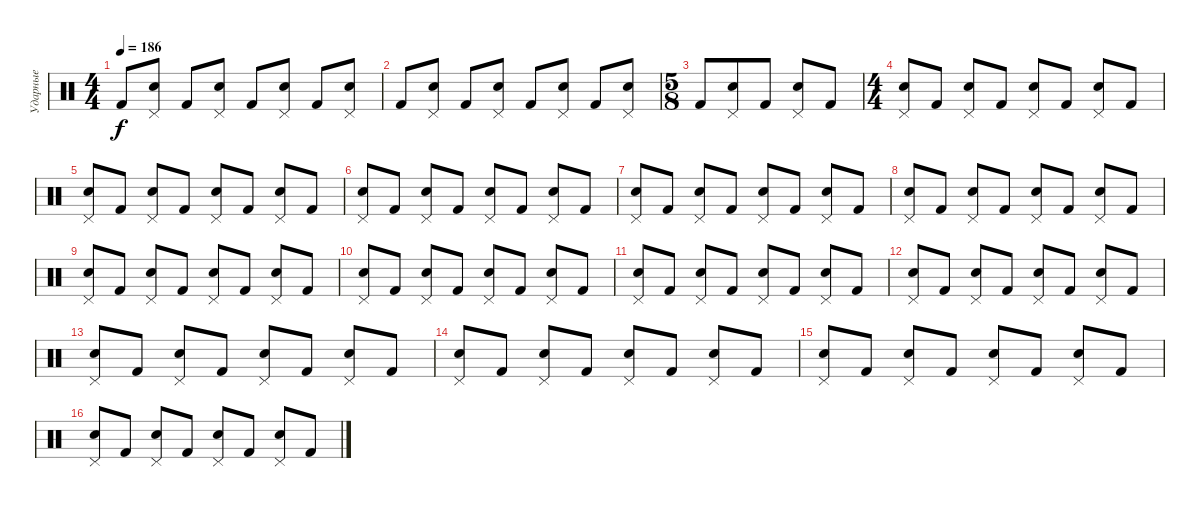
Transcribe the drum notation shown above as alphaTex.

\track ("Ударные" "Ударные") {instrument percussion}
\staff {score}
\articulation defaults
\ts (4 4)
\tempo 186
\clef neutral
\ks c "Kick (hit) 2".8{dy f}
("Pedal Hi-Hat (hit)" "Snare (hit) 2").8 "Kick (hit) 2".8 ("Pedal Hi-Hat (hit)" "Snare (hit) 2").8 "Kick (hit) 2".8 ("Pedal Hi-Hat (hit)" "Snare (hit) 2").8 "Kick (hit) 2".8 ("Pedal Hi-Hat (hit)" "Snare (hit) 2").8 |
"Kick (hit) 2".8 ("Pedal Hi-Hat (hit)" "Snare (hit) 2").8 "Kick (hit) 2".8 ("Pedal Hi-Hat (hit)" "Snare (hit) 2").8 "Kick (hit) 2".8 ("Pedal Hi-Hat (hit)" "Snare (hit) 2").8 "Kick (hit) 2".8 ("Pedal Hi-Hat (hit)" "Snare (hit) 2").8 |
\ts (5 8)
"Kick (hit) 2".8 ("Pedal Hi-Hat (hit)" "Snare (hit) 2").8 "Kick (hit) 2".8 ("Pedal Hi-Hat (hit)" "Snare (hit) 2").8 "Kick (hit) 2".8 |
\ts (4 4)
("Pedal Hi-Hat (hit)" "Snare (hit) 2").8 "Kick (hit) 2".8 ("Pedal Hi-Hat (hit)" "Snare (hit) 2").8 "Kick (hit) 2".8 ("Pedal Hi-Hat (hit)" "Snare (hit) 2").8 "Kick (hit) 2".8 ("Pedal Hi-Hat (hit)" "Snare (hit) 2").8 "Kick (hit) 2".8 |
("Pedal Hi-Hat (hit)" "Snare (hit) 2").8 "Kick (hit) 2".8 ("Pedal Hi-Hat (hit)" "Snare (hit) 2").8 "Kick (hit) 2".8 ("Pedal Hi-Hat (hit)" "Snare (hit) 2").8 "Kick (hit) 2".8 ("Pedal Hi-Hat (hit)" "Snare (hit) 2").8 "Kick (hit) 2".8 |
("Pedal Hi-Hat (hit)" "Snare (hit) 2").8 "Kick (hit) 2".8 ("Pedal Hi-Hat (hit)" "Snare (hit) 2").8 "Kick (hit) 2".8 ("Pedal Hi-Hat (hit)" "Snare (hit) 2").8 "Kick (hit) 2".8 ("Pedal Hi-Hat (hit)" "Snare (hit) 2").8 "Kick (hit) 2".8 |
("Pedal Hi-Hat (hit)" "Snare (hit) 2").8 "Kick (hit) 2".8 ("Pedal Hi-Hat (hit)" "Snare (hit) 2").8 "Kick (hit) 2".8 ("Pedal Hi-Hat (hit)" "Snare (hit) 2").8 "Kick (hit) 2".8 ("Pedal Hi-Hat (hit)" "Snare (hit) 2").8 "Kick (hit) 2".8 |
("Pedal Hi-Hat (hit)" "Snare (hit) 2").8 "Kick (hit) 2".8 ("Pedal Hi-Hat (hit)" "Snare (hit) 2").8 "Kick (hit) 2".8 ("Pedal Hi-Hat (hit)" "Snare (hit) 2").8 "Kick (hit) 2".8 ("Pedal Hi-Hat (hit)" "Snare (hit) 2").8 "Kick (hit) 2".8 |
("Pedal Hi-Hat (hit)" "Snare (hit) 2").8 "Kick (hit) 2".8 ("Pedal Hi-Hat (hit)" "Snare (hit) 2").8 "Kick (hit) 2".8 ("Pedal Hi-Hat (hit)" "Snare (hit) 2").8 "Kick (hit) 2".8 ("Pedal Hi-Hat (hit)" "Snare (hit) 2").8 "Kick (hit) 2".8 |
("Pedal Hi-Hat (hit)" "Snare (hit) 2").8 "Kick (hit) 2".8 ("Pedal Hi-Hat (hit)" "Snare (hit) 2").8 "Kick (hit) 2".8 ("Pedal Hi-Hat (hit)" "Snare (hit) 2").8 "Kick (hit) 2".8 ("Pedal Hi-Hat (hit)" "Snare (hit) 2").8 "Kick (hit) 2".8 |
("Pedal Hi-Hat (hit)" "Snare (hit) 2").8 "Kick (hit) 2".8 ("Pedal Hi-Hat (hit)" "Snare (hit) 2").8 "Kick (hit) 2".8 ("Pedal Hi-Hat (hit)" "Snare (hit) 2").8 "Kick (hit) 2".8 ("Pedal Hi-Hat (hit)" "Snare (hit) 2").8 "Kick (hit) 2".8 |
("Pedal Hi-Hat (hit)" "Snare (hit) 2").8 "Kick (hit) 2".8 ("Pedal Hi-Hat (hit)" "Snare (hit) 2").8 "Kick (hit) 2".8 ("Pedal Hi-Hat (hit)" "Snare (hit) 2").8 "Kick (hit) 2".8 ("Pedal Hi-Hat (hit)" "Snare (hit) 2").8 "Kick (hit) 2".8 |
("Pedal Hi-Hat (hit)" "Snare (hit) 2").8 "Kick (hit) 2".8 ("Pedal Hi-Hat (hit)" "Snare (hit) 2").8 "Kick (hit) 2".8 ("Pedal Hi-Hat (hit)" "Snare (hit) 2").8 "Kick (hit) 2".8 ("Pedal Hi-Hat (hit)" "Snare (hit) 2").8 "Kick (hit) 2".8 |
("Pedal Hi-Hat (hit)" "Snare (hit) 2").8 "Kick (hit) 2".8 ("Pedal Hi-Hat (hit)" "Snare (hit) 2").8 "Kick (hit) 2".8 ("Pedal Hi-Hat (hit)" "Snare (hit) 2").8 "Kick (hit) 2".8 ("Pedal Hi-Hat (hit)" "Snare (hit) 2").8 "Kick (hit) 2".8 |
("Pedal Hi-Hat (hit)" "Snare (hit) 2").8 "Kick (hit) 2".8 ("Pedal Hi-Hat (hit)" "Snare (hit) 2").8 "Kick (hit) 2".8 ("Pedal Hi-Hat (hit)" "Snare (hit) 2").8 "Kick (hit) 2".8 ("Pedal Hi-Hat (hit)" "Snare (hit) 2").8 "Kick (hit) 2".8 |
("Pedal Hi-Hat (hit)" "Snare (hit) 2").8 "Kick (hit) 2".8 ("Pedal Hi-Hat (hit)" "Snare (hit) 2").8 "Kick (hit) 2".8 ("Pedal Hi-Hat (hit)" "Snare (hit) 2").8 "Kick (hit) 2".8 ("Pedal Hi-Hat (hit)" "Snare (hit) 2").8 "Kick (hit) 2".8
